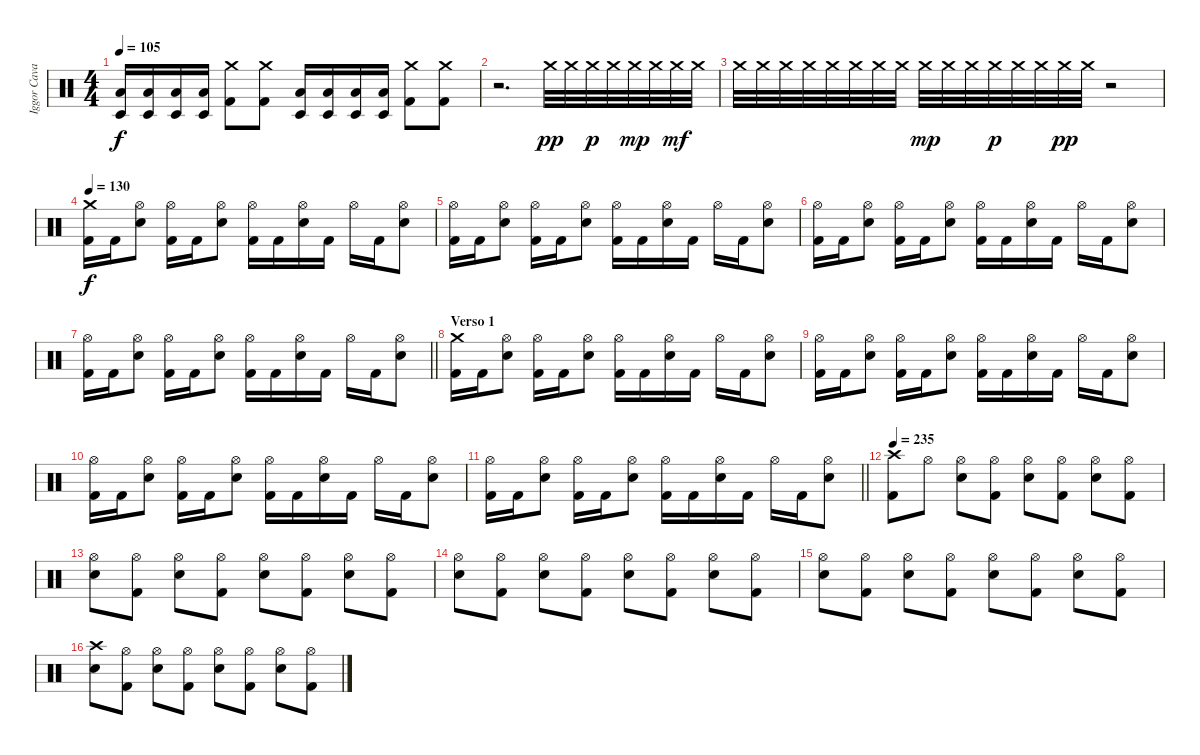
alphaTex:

\track ("Iggor Cavalera" "Iggor Cava") {instrument percussion}
\staff {score}
\articulation defaults
\ts (4 4)
\tempo 105
\clef neutral
\ks c
("Timbale low (hit)" "Low Floor Tom (hit)").16{dy f} ("Timbale low (hit)" "Low Floor Tom (hit)").16 ("Timbale low (hit)" "Low Floor Tom (hit)").16 ("Timbale low (hit)" "Low Floor Tom (hit)").16 ("Crash medium (hit)" "Kick (hit) 2").8 ("Crash medium (hit)" "Kick (hit) 2").8 ("Timbale low (hit)" "Low Floor Tom (hit)").16 ("Timbale low (hit)" "Low Floor Tom (hit)").16 ("Timbale low (hit)" "Low Floor Tom (hit)").16 ("Timbale low (hit)" "Low Floor Tom (hit)").16 ("Crash medium (hit)" "Kick (hit) 2").8 ("Crash medium (hit)" "Kick (hit) 2").8 |
r.2{d} "Crash medium (hit)".32{dy pp} "Crash medium (hit)".32 "Crash medium (hit)".32{dy p} "Crash medium (hit)".32 "Crash medium (hit)".32{dy mp} "Crash medium (hit)".32 "Crash medium (hit)".32{dy mf} "Crash medium (hit)".32 |
"Crash medium (hit)".32 "Crash medium (hit)".32 "Crash medium (hit)".32 "Crash medium (hit)".32 "Crash medium (hit)".32 "Crash medium (hit)".32 "Crash medium (hit)".32 "Crash medium (hit)".32 "Crash medium (hit)".32{dy mp} "Crash medium (hit)".32 "Crash medium (hit)".32 "Crash medium (hit)".32{dy p} "Crash medium (hit)".32 "Crash medium (hit)".32 "Crash medium (hit)".32{dy pp} "Crash medium (hit)".32 r.2 |
\tempo 130
("Crash medium (hit)" "Kick (hit) 2").16{dy f} "Kick (hit) 2".16 ("Hi-Hat (open)" "Snare (hit) 2").8 ("Hi-Hat (open)" "Kick (hit) 2").16 "Kick (hit) 2".16 ("Hi-Hat (open)" "Snare (hit) 2").8 ("Hi-Hat (open)" "Kick (hit) 2").16 "Kick (hit) 2".16 ("Hi-Hat (open)" "Snare (hit) 2").16 "Kick (hit) 2".16 "Hi-Hat (open)".16 "Kick (hit) 2".16 ("Hi-Hat (open)" "Snare (hit) 2").8 |
("Hi-Hat (open)" "Kick (hit) 2").16 "Kick (hit) 2".16 ("Hi-Hat (open)" "Snare (hit) 2").8 ("Hi-Hat (open)" "Kick (hit) 2").16 "Kick (hit) 2".16 ("Hi-Hat (open)" "Snare (hit) 2").8 ("Hi-Hat (open)" "Kick (hit) 2").16 "Kick (hit) 2".16 ("Hi-Hat (open)" "Snare (hit) 2").16 "Kick (hit) 2".16 "Hi-Hat (open)".16 "Kick (hit) 2".16 ("Hi-Hat (open)" "Snare (hit) 2").8 |
("Hi-Hat (open)" "Kick (hit) 2").16 "Kick (hit) 2".16 ("Hi-Hat (open)" "Snare (hit) 2").8 ("Hi-Hat (open)" "Kick (hit) 2").16 "Kick (hit) 2".16 ("Hi-Hat (open)" "Snare (hit) 2").8 ("Hi-Hat (open)" "Kick (hit) 2").16 "Kick (hit) 2".16 ("Hi-Hat (open)" "Snare (hit) 2").16 "Kick (hit) 2".16 "Hi-Hat (open)".16 "Kick (hit) 2".16 ("Hi-Hat (open)" "Snare (hit) 2").8 |
\barLineRight lightlight
("Hi-Hat (open)" "Kick (hit) 2").16 "Kick (hit) 2".16 ("Hi-Hat (open)" "Snare (hit) 2").8 ("Hi-Hat (open)" "Kick (hit) 2").16 "Kick (hit) 2".16 ("Hi-Hat (open)" "Snare (hit) 2").8 ("Hi-Hat (open)" "Kick (hit) 2").16 "Kick (hit) 2".16 ("Hi-Hat (open)" "Snare (hit) 2").16 "Kick (hit) 2".16 "Hi-Hat (open)".16 "Kick (hit) 2".16 ("Hi-Hat (open)" "Snare (hit) 2").8 |
\section ("" "Verso 1")
("Crash medium (hit)" "Kick (hit) 2").16 "Kick (hit) 2".16 ("Hi-Hat (open)" "Snare (hit) 2").8 ("Hi-Hat (open)" "Kick (hit) 2").16 "Kick (hit) 2".16 ("Hi-Hat (open)" "Snare (hit) 2").8 ("Hi-Hat (open)" "Kick (hit) 2").16 "Kick (hit) 2".16 ("Hi-Hat (open)" "Snare (hit) 2").16 "Kick (hit) 2".16 "Hi-Hat (open)".16 "Kick (hit) 2".16 ("Hi-Hat (open)" "Snare (hit) 2").8 |
("Hi-Hat (open)" "Kick (hit) 2").16 "Kick (hit) 2".16 ("Hi-Hat (open)" "Snare (hit) 2").8 ("Hi-Hat (open)" "Kick (hit) 2").16 "Kick (hit) 2".16 ("Hi-Hat (open)" "Snare (hit) 2").8 ("Hi-Hat (open)" "Kick (hit) 2").16 "Kick (hit) 2".16 ("Hi-Hat (open)" "Snare (hit) 2").16 "Kick (hit) 2".16 "Hi-Hat (open)".16 "Kick (hit) 2".16 ("Hi-Hat (open)" "Snare (hit) 2").8 |
("Hi-Hat (open)" "Kick (hit) 2").16 "Kick (hit) 2".16 ("Hi-Hat (open)" "Snare (hit) 2").8 ("Hi-Hat (open)" "Kick (hit) 2").16 "Kick (hit) 2".16 ("Hi-Hat (open)" "Snare (hit) 2").8 ("Hi-Hat (open)" "Kick (hit) 2").16 "Kick (hit) 2".16 ("Hi-Hat (open)" "Snare (hit) 2").16 "Kick (hit) 2".16 "Hi-Hat (open)".16 "Kick (hit) 2".16 ("Hi-Hat (open)" "Snare (hit) 2").8 |
\barLineRight lightlight
("Hi-Hat (open)" "Kick (hit) 2").16 "Kick (hit) 2".16 ("Hi-Hat (open)" "Snare (hit) 2").8 ("Hi-Hat (open)" "Kick (hit) 2").16 "Kick (hit) 2".16 ("Hi-Hat (open)" "Snare (hit) 2").8 ("Hi-Hat (open)" "Kick (hit) 2").16 "Kick (hit) 2".16 ("Hi-Hat (open)" "Snare (hit) 2").16 "Kick (hit) 2".16 "Hi-Hat (open)".16 "Kick (hit) 2".16 ("Hi-Hat (open)" "Snare (hit) 2").8 |
\tempo 235
("Crash high (hit)" "Kick (hit) 2").8 "Hi-Hat (open)".8 ("Hi-Hat (open)" "Snare (hit) 2").8 ("Hi-Hat (open)" "Kick (hit) 2").8 ("Hi-Hat (open)" "Snare (hit) 2").8 ("Hi-Hat (open)" "Kick (hit) 2").8 ("Hi-Hat (open)" "Snare (hit) 2").8 ("Hi-Hat (open)" "Kick (hit) 2").8 |
("Hi-Hat (open)" "Snare (hit) 2").8 ("Hi-Hat (open)" "Kick (hit) 2").8 ("Hi-Hat (open)" "Snare (hit) 2").8 ("Hi-Hat (open)" "Kick (hit) 2").8 ("Hi-Hat (open)" "Snare (hit) 2").8 ("Hi-Hat (open)" "Kick (hit) 2").8 ("Hi-Hat (open)" "Snare (hit) 2").8 ("Hi-Hat (open)" "Kick (hit) 2").8 |
("Hi-Hat (open)" "Snare (hit) 2").8 ("Hi-Hat (open)" "Kick (hit) 2").8 ("Hi-Hat (open)" "Snare (hit) 2").8 ("Hi-Hat (open)" "Kick (hit) 2").8 ("Hi-Hat (open)" "Snare (hit) 2").8 ("Hi-Hat (open)" "Kick (hit) 2").8 ("Hi-Hat (open)" "Snare (hit) 2").8 ("Hi-Hat (open)" "Kick (hit) 2").8 |
("Hi-Hat (open)" "Snare (hit) 2").8 ("Hi-Hat (open)" "Kick (hit) 2").8 ("Hi-Hat (open)" "Snare (hit) 2").8 ("Hi-Hat (open)" "Kick (hit) 2").8 ("Hi-Hat (open)" "Snare (hit) 2").8 ("Hi-Hat (open)" "Kick (hit) 2").8 ("Hi-Hat (open)" "Snare (hit) 2").8 ("Hi-Hat (open)" "Kick (hit) 2").8 |
("Crash high (hit)" "Snare (hit) 2").8 ("Hi-Hat (open)" "Kick (hit) 2").8 ("Hi-Hat (open)" "Snare (hit) 2").8 ("Hi-Hat (open)" "Kick (hit) 2").8 ("Hi-Hat (open)" "Snare (hit) 2").8 ("Hi-Hat (open)" "Kick (hit) 2").8 ("Hi-Hat (open)" "Snare (hit) 2").8 ("Hi-Hat (open)" "Kick (hit) 2").8
